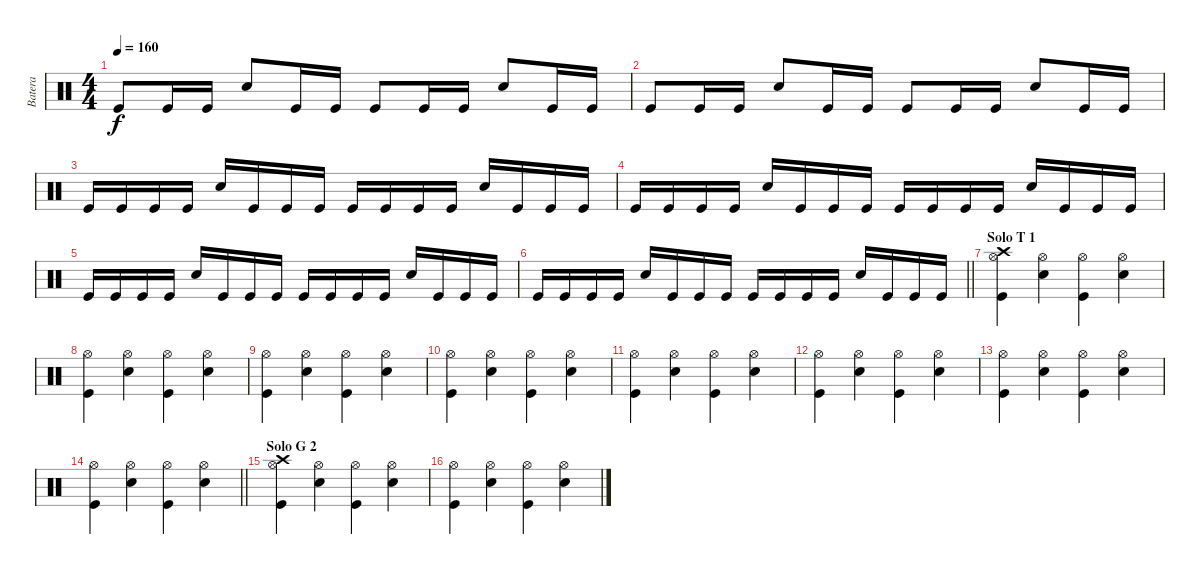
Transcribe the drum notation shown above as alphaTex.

\track ("Batera" "Batera") {instrument percussion}
\staff {score}
\articulation defaults
\ts (4 4)
\tempo 160
\clef neutral
\ks c "Kick (hit)".8{dy f} "Kick (hit)".16 "Kick (hit)".16 "Snare (hit) 2".8 "Kick (hit)".16 "Kick (hit)".16 "Kick (hit)".8 "Kick (hit)".16 "Kick (hit)".16 "Snare (hit) 2".8 "Kick (hit)".16 "Kick (hit)".16
|
"Kick (hit)".8 "Kick (hit)".16 "Kick (hit)".16 "Snare (hit) 2".8 "Kick (hit)".16 "Kick (hit)".16 "Kick (hit)".8 "Kick (hit)".16 "Kick (hit)".16 "Snare (hit) 2".8 "Kick (hit)".16 "Kick (hit)".16 |
"Kick (hit)".16 "Kick (hit)".16 "Kick (hit)".16 "Kick (hit)".16 "Snare (hit) 2".16 "Kick (hit)".16 "Kick (hit)".16 "Kick (hit)".16 "Kick (hit)".16 "Kick (hit)".16 "Kick (hit)".16 "Kick (hit)".16 "Snare (hit) 2".16 "Kick (hit)".16 "Kick (hit)".16 "Kick (hit)".16 |
"Kick (hit)".16 "Kick (hit)".16 "Kick (hit)".16 "Kick (hit)".16 "Snare (hit) 2".16 "Kick (hit)".16 "Kick (hit)".16 "Kick (hit)".16 "Kick (hit)".16 "Kick (hit)".16 "Kick (hit)".16 "Kick (hit)".16 "Snare (hit) 2".16 "Kick (hit)".16 "Kick (hit)".16 "Kick (hit)".16 |
"Kick (hit)".16 "Kick (hit)".16 "Kick (hit)".16 "Kick (hit)".16 "Snare (hit) 2".16 "Kick (hit)".16 "Kick (hit)".16 "Kick (hit)".16 "Kick (hit)".16 "Kick (hit)".16 "Kick (hit)".16 "Kick (hit)".16 "Snare (hit) 2".16 "Kick (hit)".16 "Kick (hit)".16 "Kick (hit)".16 |
\barLineRight lightlight "Kick (hit)".16 "Kick (hit)".16 "Kick (hit)".16 "Kick (hit)".16 "Snare (hit) 2".16 "Kick (hit)".16 "Kick (hit)".16 "Kick (hit)".16 "Kick (hit)".16 "Kick (hit)".16 "Kick (hit)".16 "Kick (hit)".16 "Snare (hit) 2".16 "Kick (hit)".16 "Kick (hit)".16 "Kick (hit)".16
|
\section ("" "Solo T 1")
("Hi-Hat (open)" "Kick (hit)" "Crash high (hit)").4 ("Hi-Hat (open)" "Snare (hit) 2").4 ("Hi-Hat (open)" "Kick (hit)").4 ("Hi-Hat (open)" "Snare (hit) 2").4 |
("Hi-Hat (open)" "Kick (hit)").4 ("Hi-Hat (open)" "Snare (hit) 2").4 ("Hi-Hat (open)" "Kick (hit)").4 ("Hi-Hat (open)" "Snare (hit) 2").4 |
("Hi-Hat (open)" "Kick (hit)").4 ("Hi-Hat (open)" "Snare (hit) 2").4 ("Hi-Hat (open)" "Kick (hit)").4 ("Hi-Hat (open)" "Snare (hit) 2").4 |
("Hi-Hat (open)" "Kick (hit)").4 ("Hi-Hat (open)" "Snare (hit) 2").4 ("Hi-Hat (open)" "Kick (hit)").4 ("Hi-Hat (open)" "Snare (hit) 2").4 |
("Hi-Hat (open)" "Kick (hit)").4 ("Hi-Hat (open)" "Snare (hit) 2").4 ("Hi-Hat (open)" "Kick (hit)").4 ("Hi-Hat (open)" "Snare (hit) 2").4 |
("Hi-Hat (open)" "Kick (hit)").4 ("Hi-Hat (open)" "Snare (hit) 2").4 ("Hi-Hat (open)" "Kick (hit)").4 ("Hi-Hat (open)" "Snare (hit) 2").4 |
("Hi-Hat (open)" "Kick (hit)").4 ("Hi-Hat (open)" "Snare (hit) 2").4 ("Hi-Hat (open)" "Kick (hit)").4 ("Hi-Hat (open)" "Snare (hit) 2").4 |
\barLineRight lightlight
("Hi-Hat (open)" "Kick (hit)").4 ("Hi-Hat (open)" "Snare (hit) 2").4 ("Hi-Hat (open)" "Kick (hit)").4 ("Hi-Hat (open)" "Snare (hit) 2").4 |
\section ("" "Solo G 2")
("Hi-Hat (open)" "Kick (hit)" "Crash high (hit)").4 ("Hi-Hat (open)" "Snare (hit) 2").4 ("Hi-Hat (open)" "Kick (hit)").4 ("Hi-Hat (open)" "Snare (hit) 2").4 |
("Hi-Hat (open)" "Kick (hit)").4 ("Hi-Hat (open)" "Snare (hit) 2").4 ("Hi-Hat (open)" "Kick (hit)").4 ("Hi-Hat (open)" "Snare (hit) 2").4
